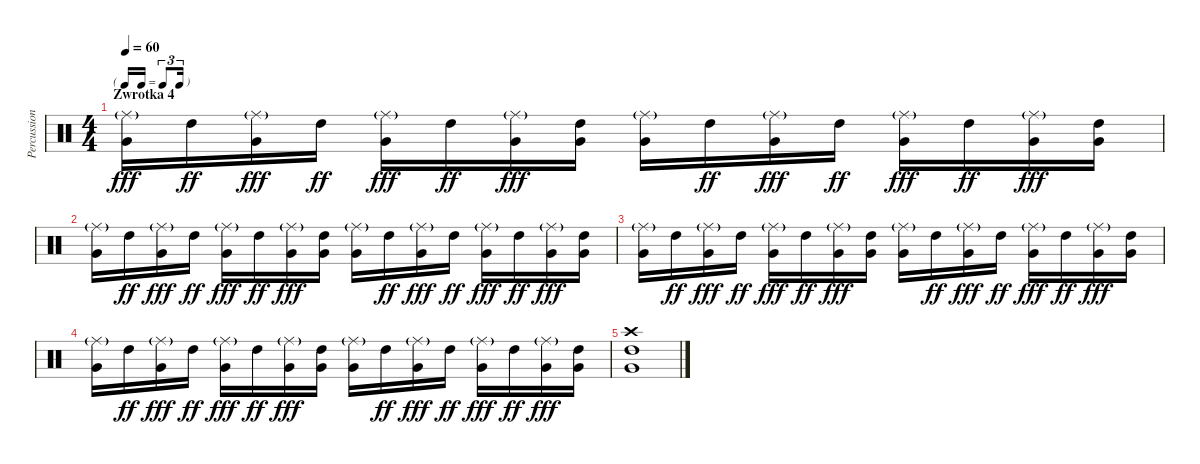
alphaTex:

\track ("Percussion" "Percussion") {instrument percussion}
\staff {score}
\articulation defaults
\ts (4 4)
\tf triplet16th
\section ("" "Zwrotka 4")
\tempo 60
\clef neutral
\ks c
("Ride (middle)"{g} "Very Low Tom (hit)").16{dy fff} "High Tom (hit)".16{dy ff} ("Ride (middle)"{g} "Very Low Tom (hit)").16{dy fff} "High Tom (hit)".16{dy ff} ("Ride (middle)"{g} "Very Low Tom (hit)").16{dy fff} "High Tom (hit)".16{dy ff} ("Ride (middle)"{g} "Very Low Tom (hit)").16{dy fff} ("High Tom (hit)" "Very Low Tom (hit)").16 ("Ride (middle)"{g} "Very Low Tom (hit)").16 "High Tom (hit)".16{dy ff} ("Ride (middle)"{g} "Very Low Tom (hit)").16{dy fff} "High Tom (hit)".16{dy ff} ("Ride (middle)"{g} "Very Low Tom (hit)").16{dy fff} "High Tom (hit)".16{dy ff} ("Ride (middle)"{g} "Very Low Tom (hit)").16{dy fff} ("High Tom (hit)" "Very Low Tom (hit)").16 |
("Ride (middle)"{g} "Very Low Tom (hit)").16 "High Tom (hit)".16{dy ff} ("Ride (middle)"{g} "Very Low Tom (hit)").16{dy fff} "High Tom (hit)".16{dy ff} ("Ride (middle)"{g} "Very Low Tom (hit)").16{dy fff} "High Tom (hit)".16{dy ff} ("Ride (middle)"{g} "Very Low Tom (hit)").16{dy fff} ("High Tom (hit)" "Very Low Tom (hit)").16 ("Ride (middle)"{g} "Very Low Tom (hit)").16 "High Tom (hit)".16{dy ff} ("Ride (middle)"{g} "Very Low Tom (hit)").16{dy fff} "High Tom (hit)".16{dy ff} ("Ride (middle)"{g} "Very Low Tom (hit)").16{dy fff} "High Tom (hit)".16{dy ff} ("Ride (middle)"{g} "Very Low Tom (hit)").16{dy fff} ("High Tom (hit)" "Very Low Tom (hit)").16 |
("Ride (middle)"{g} "Very Low Tom (hit)").16 "High Tom (hit)".16{dy ff} ("Ride (middle)"{g} "Very Low Tom (hit)").16{dy fff} "High Tom (hit)".16{dy ff} ("Ride (middle)"{g} "Very Low Tom (hit)").16{dy fff} "High Tom (hit)".16{dy ff} ("Ride (middle)"{g} "Very Low Tom (hit)").16{dy fff} ("High Tom (hit)" "Very Low Tom (hit)").16 ("Ride (middle)"{g} "Very Low Tom (hit)").16 "High Tom (hit)".16{dy ff} ("Ride (middle)"{g} "Very Low Tom (hit)").16{dy fff} "High Tom (hit)".16{dy ff} ("Ride (middle)"{g} "Very Low Tom (hit)").16{dy fff} "High Tom (hit)".16{dy ff} ("Ride (middle)"{g} "Very Low Tom (hit)").16{dy fff} ("High Tom (hit)" "Very Low Tom (hit)").16 |
("Ride (middle)"{g} "Very Low Tom (hit)").16 "High Tom (hit)".16{dy ff} ("Ride (middle)"{g} "Very Low Tom (hit)").16{dy fff} "High Tom (hit)".16{dy ff} ("Ride (middle)"{g} "Very Low Tom (hit)").16{dy fff} "High Tom (hit)".16{dy ff} ("Ride (middle)"{g} "Very Low Tom (hit)").16{dy fff} ("High Tom (hit)" "Very Low Tom (hit)").16 ("Ride (middle)"{g} "Very Low Tom (hit)").16 "High Tom (hit)".16{dy ff} ("Ride (middle)"{g} "Very Low Tom (hit)").16{dy fff} "High Tom (hit)".16{dy ff} ("Ride (middle)"{g} "Very Low Tom (hit)").16{dy fff} "High Tom (hit)".16{dy ff} ("Ride (middle)"{g} "Very Low Tom (hit)").16{dy fff} ("High Tom (hit)" "Very Low Tom (hit)").16 |
("Crash high (hit)" "High Tom (hit)" "Very Low Tom (hit)").1
